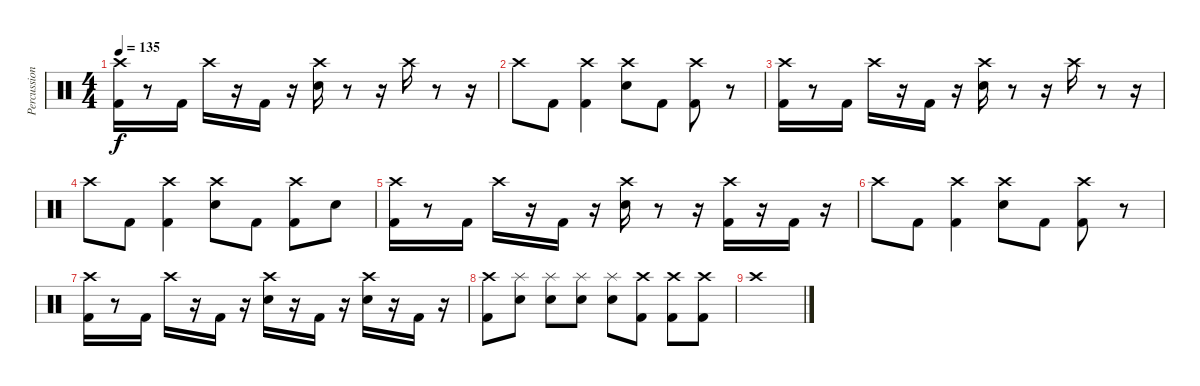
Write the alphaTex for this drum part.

\track ("Percussion" "Percussion") {instrument percussion}
\staff {score}
\articulation defaults
\ts (4 4)
\tempo 135
\clef neutral
\ks c
("Crash high (hit)" "Kick (hit) 2").16{dy f} r.8 "Kick (hit) 2".16 "Crash high (hit)".16 r.16 "Kick (hit) 2".16 r.16 ("Crash high (hit)" "Electric Snare (hit)").16 r.8 r.16 "Crash high (hit)".16 r.8 r.16 |
"Crash high (hit)".8 "Kick (hit) 2".8 ("Crash high (hit)" "Kick (hit) 2").4 ("Crash high (hit)" "Electric Snare (hit)").8 "Kick (hit) 2".8 ("Crash high (hit)" "Kick (hit) 2").8 r.8 |
("Crash high (hit)" "Kick (hit) 2").16 r.8 "Kick (hit) 2".16 "Crash high (hit)".16 r.16 "Kick (hit) 2".16 r.16 ("Crash high (hit)" "Electric Snare (hit)").16 r.8 r.16 "Crash high (hit)".16 r.8 r.16 |
"Crash high (hit)".8 "Kick (hit) 2".8 ("Crash high (hit)" "Kick (hit) 2").4 ("Crash high (hit)" "Electric Snare (hit)").8 "Kick (hit) 2".8 ("Crash high (hit)" "Kick (hit) 2").8 "Electric Snare (hit)".8 |
("Crash high (hit)" "Kick (hit) 2").16 r.8 "Kick (hit) 2".16 "Crash high (hit)".16 r.16 "Kick (hit) 2".16 r.16 ("Crash high (hit)" "Electric Snare (hit)").16 r.8 r.16 ("Crash high (hit)" "Kick (hit) 2").16 r.16 "Kick (hit) 2".16 r.16 |
"Crash high (hit)".8 "Kick (hit) 2".8 ("Crash high (hit)" "Kick (hit) 2").4 ("Crash high (hit)" "Electric Snare (hit)").8 "Kick (hit) 2".8 ("Crash high (hit)" "Kick (hit) 2").8 r.8 |
("Crash high (hit)" "Kick (hit) 2").16 r.8 "Kick (hit) 2".16 "Crash high (hit)".16 r.16 "Kick (hit) 2".16 r.16 ("Crash high (hit)" "Electric Snare (hit)").16 r.16 "Kick (hit) 2".16 r.16 ("Crash high (hit)" "Electric Snare (hit)").16 r.16 "Kick (hit) 2".16 r.16 |
("Crash high (hit)" "Kick (hit) 2").8 ("Splash (hit)" "Electric Snare (hit)").8 ("Splash (hit)" "Electric Snare (hit)").8 ("Splash (hit)" "Electric Snare (hit)").8 ("Splash (hit)" "Electric Snare (hit)").8 ("Crash high (hit)" "Kick (hit) 2").8 ("Crash high (hit)" "Kick (hit) 2").8 ("Crash high (hit)" "Kick (hit) 2").8 |
"Crash high (hit)".1
